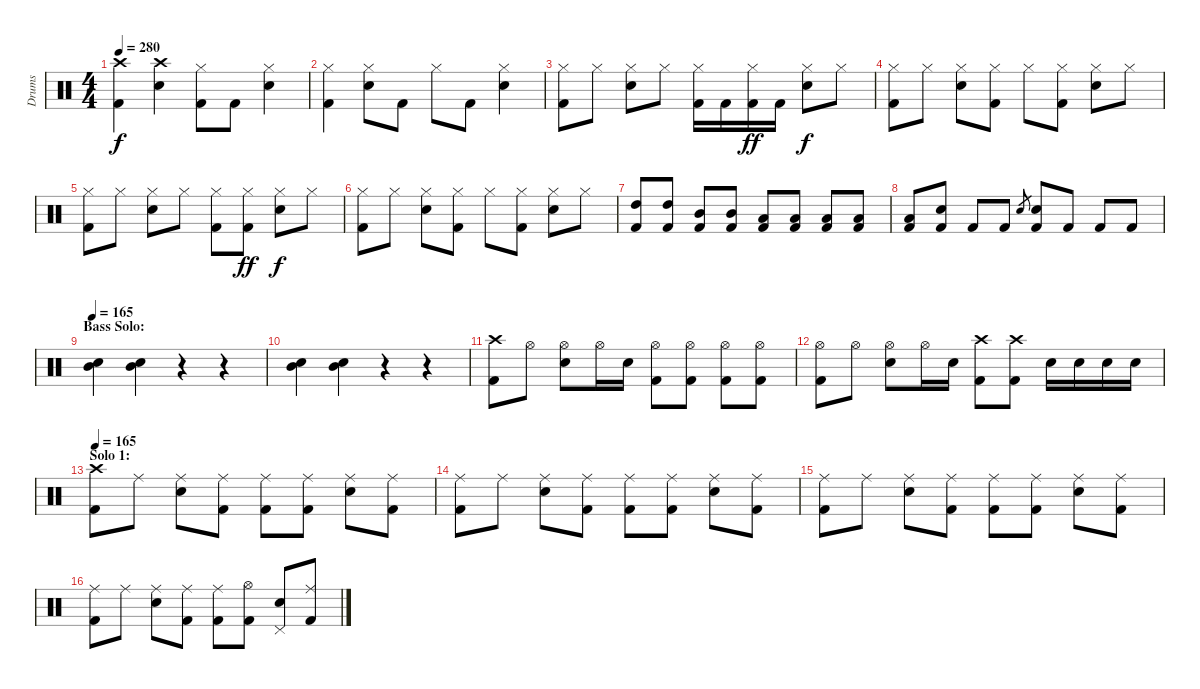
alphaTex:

\track ("Drums" "Drums") {instrument percussion}
\staff {score}
\articulation defaults
\ts (4 4)
\tempo 280
\clef neutral
\ks c
("Crash high (hit)" "Kick (hit) 2").4{dy f} ("Crash high (hit)" "Snare (hit) 2").4 ("Hi-Hat (closed)" "Kick (hit) 2").8 "Kick (hit) 2".8 ("Hi-Hat (closed)" "Snare (hit) 2").4 |
("Hi-Hat (closed)" "Kick (hit) 2").4 ("Hi-Hat (closed)" "Snare (hit) 2").8 "Kick (hit) 2".8 "Hi-Hat (closed)".8 "Kick (hit) 2".8 ("Hi-Hat (closed)" "Snare (hit) 2").4 |
("Hi-Hat (closed)" "Kick (hit) 2").8 "Hi-Hat (closed)".8 ("Hi-Hat (closed)" "Snare (hit) 2").8 "Hi-Hat (closed)".8 ("Hi-Hat (closed)" "Kick (hit) 2").16 "Kick (hit) 2".16 ("Hi-Hat (closed)" "Kick (hit) 2").16{dy ff} "Kick (hit) 2".16 ("Hi-Hat (closed)" "Snare (hit) 2").8{dy f} "Hi-Hat (closed)".8 |
("Hi-Hat (closed)" "Kick (hit) 2").8 "Hi-Hat (closed)".8 ("Hi-Hat (closed)" "Snare (hit) 2").8 ("Hi-Hat (closed)" "Kick (hit) 2").8 "Hi-Hat (closed)".8 ("Hi-Hat (closed)" "Kick (hit) 2").8 ("Hi-Hat (closed)" "Snare (hit) 2").8 "Hi-Hat (closed)".8 |
("Hi-Hat (closed)" "Kick (hit) 2").8 "Hi-Hat (closed)".8 ("Hi-Hat (closed)" "Snare (hit) 2").8 "Hi-Hat (closed)".8 ("Hi-Hat (closed)" "Kick (hit) 2").8 ("Hi-Hat (closed)" "Kick (hit) 2").8{dy ff} ("Hi-Hat (closed)" "Snare (hit) 2").8{dy f} "Hi-Hat (closed)".8 |
("Hi-Hat (closed)" "Kick (hit) 2").8 "Hi-Hat (closed)".8 ("Hi-Hat (closed)" "Snare (hit) 2").8 ("Hi-Hat (closed)" "Kick (hit) 2").8 "Hi-Hat (closed)".8 ("Hi-Hat (closed)" "Kick (hit) 2").8 ("Hi-Hat (closed)" "Snare (hit) 2").8 "Hi-Hat (closed)".8 |
("High Tom (hit)" "Kick (hit) 2").8 ("High Tom (hit)" "Kick (hit) 2").8 ("Mid Tom (hit)" "Kick (hit) 2").8 ("Mid Tom (hit)" "Kick (hit) 2").8 ("Low Tom (hit)" "Kick (hit) 2").8 ("Low Tom (hit)" "Kick (hit) 2").8 ("Low Tom (hit)" "Kick (hit) 2").8 ("Low Tom (hit)" "Kick (hit) 2").8 |
("Low Tom (hit)" "Kick (hit) 2").8 ("Snare (hit) 2" "Kick (hit) 2").8 "Kick (hit) 2".8 "Kick (hit) 2".8 "Snare (hit) 2".8{gr} ("Snare (hit) 2" "Kick (hit) 2").8 "Kick (hit) 2".8 "Kick (hit) 2".8 "Kick (hit) 2".8 |
\section ("" "Bass Solo:")
\tempo 165
("Mid Tom (hit)" "Snare (hit) 2").4 ("Mid Tom (hit)" "Snare (hit) 2").4 r.4 r.4 |
("Mid Tom (hit)" "Snare (hit) 2").4 ("Mid Tom (hit)" "Snare (hit) 2").4 r.4 r.4 |
("Crash high (hit)" "Kick (hit) 2").8 "Hi-Hat (open)".8 ("Hi-Hat (open)" "Snare (hit) 2").8 "Hi-Hat (open)".16 "Snare (hit) 2".16 ("Hi-Hat (open)" "Kick (hit) 2").8 ("Hi-Hat (open)" "Kick (hit) 2").8 ("Hi-Hat (open)" "Kick (hit) 2").8 ("Hi-Hat (open)" "Kick (hit) 2").8 |
("Hi-Hat (open)" "Kick (hit) 2").8 "Hi-Hat (open)".8 ("Hi-Hat (open)" "Snare (hit) 2").8 "Hi-Hat (open)".16 "Snare (hit) 2".16 ("Crash high (hit)" "Kick (hit) 2").8 ("Crash high (hit)" "Kick (hit) 2").8 "Snare (hit) 2".16 "Snare (hit) 2".16 "Snare (hit) 2".16 "Snare (hit) 2".16 |
\section ("" "Solo 1:")
\tempo 165
("Crash high (hit)" "Kick (hit) 2").8 "Ride (middle)".8 ("Ride (middle)" "Snare (hit) 2").8 ("Ride (middle)" "Kick (hit) 2").8 ("Ride (middle)" "Kick (hit) 2").8 ("Ride (middle)" "Kick (hit) 2").8 ("Ride (middle)" "Snare (hit) 2").8 ("Ride (middle)" "Kick (hit) 2").8 |
("Ride (middle)" "Kick (hit) 2").8 "Ride (middle)".8 ("Ride (middle)" "Snare (hit) 2").8 ("Ride (middle)" "Kick (hit) 2").8 ("Ride (middle)" "Kick (hit) 2").8 ("Ride (middle)" "Kick (hit) 2").8 ("Ride (middle)" "Snare (hit) 2").8 ("Ride (middle)" "Kick (hit) 2").8 |
("Ride (middle)" "Kick (hit) 2").8 "Ride (middle)".8 ("Ride (middle)" "Snare (hit) 2").8 ("Ride (middle)" "Kick (hit) 2").8 ("Ride (middle)" "Kick (hit) 2").8 ("Ride (middle)" "Kick (hit) 2").8 ("Ride (middle)" "Snare (hit) 2").8 ("Ride (middle)" "Kick (hit) 2").8 |
("Ride (middle)" "Kick (hit) 2").8 "Ride (middle)".8 ("Ride (middle)" "Snare (hit) 2").8 ("Ride (middle)" "Kick (hit) 2").8 ("Ride (middle)" "Kick (hit) 2").8 ("Hi-Hat (open)" "Kick (hit) 2").8 ("Pedal Hi-Hat (hit)" "Snare (hit) 2").8 ("Ride (middle)" "Kick (hit) 2").8
